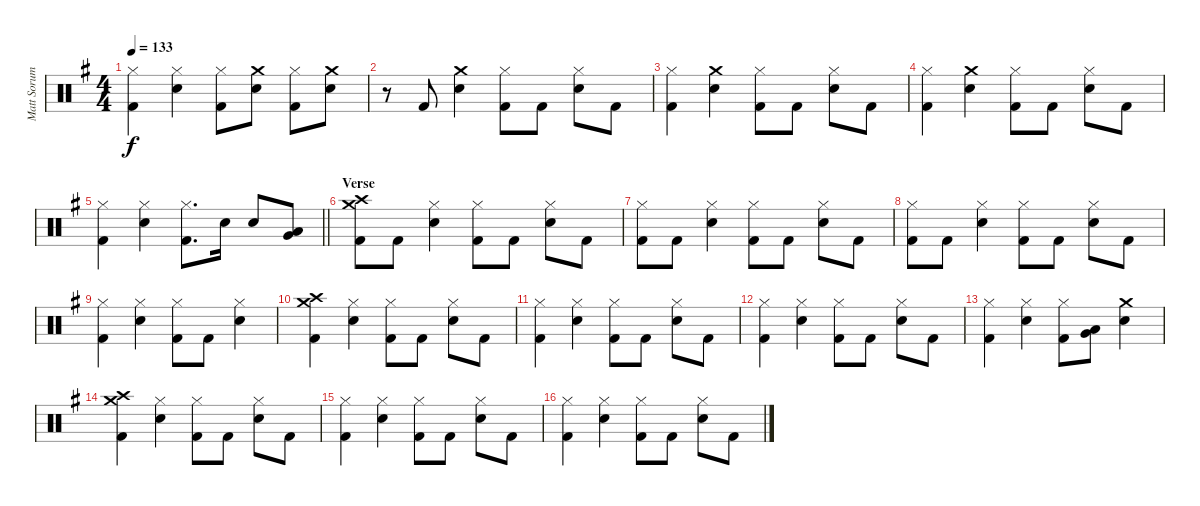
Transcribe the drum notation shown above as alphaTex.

\track ("Matt Sorum - Drums" "Matt Sorum") {instrument percussion}
\staff {score}
\articulation defaults
\ts (4 4)
\tempo 133
\clef neutral
\ks g
("Hi-Hat (closed)" "Kick (hit) 2").4{dy f} ("Hi-Hat (closed)" "Snare (hit) 2").4 ("Hi-Hat (closed)" "Kick (hit) 2").8 ("Crash medium (hit)" "Snare (hit) 2").8 ("Hi-Hat (closed)" "Kick (hit) 2").8 ("Crash medium (hit)" "Snare (hit) 2").8 |
r.8 "Kick (hit) 2".8 ("Crash medium (hit)" "Snare (hit) 2").4 ("Hi-Hat (closed)" "Kick (hit) 2").8 "Kick (hit) 2".8 ("Hi-Hat (closed)" "Snare (hit) 2").8 "Kick (hit) 2".8 |
("Hi-Hat (closed)" "Kick (hit) 2").4 ("Crash medium (hit)" "Snare (hit) 2").4 ("Hi-Hat (closed)" "Kick (hit) 2").8 "Kick (hit) 2".8 ("Hi-Hat (closed)" "Snare (hit) 2").8 "Kick (hit) 2".8 |
("Hi-Hat (closed)" "Kick (hit) 2").4 ("Crash medium (hit)" "Snare (hit) 2").4 ("Hi-Hat (closed)" "Kick (hit) 2").8 "Kick (hit) 2".8 ("Hi-Hat (closed)" "Snare (hit) 2").8 "Kick (hit) 2".8 |
\barLineRight lightlight
("Hi-Hat (closed)" "Kick (hit) 2").4 ("Hi-Hat (closed)" "Snare (hit) 2").4 ("Hi-Hat (closed)" "Kick (hit) 2").8{d} "Snare (hit) 2".16 "Snare (hit) 2".8 ("Low Tom (hit)" "Very Low Tom (hit)").8 |
\section ("" "Verse")
("Crash medium (hit)" "Crash high (hit)" "Kick (hit) 2").8 "Kick (hit) 2".8 ("Hi-Hat (closed)" "Snare (hit) 2").4 ("Hi-Hat (closed)" "Kick (hit) 2").8 "Kick (hit) 2".8 ("Hi-Hat (closed)" "Snare (hit) 2").8 "Kick (hit) 2".8 |
("Hi-Hat (closed)" "Kick (hit) 2").8 "Kick (hit) 2".8 ("Hi-Hat (closed)" "Snare (hit) 2").4 ("Hi-Hat (closed)" "Kick (hit) 2").8 "Kick (hit) 2".8 ("Hi-Hat (closed)" "Snare (hit) 2").8 "Kick (hit) 2".8 |
("Hi-Hat (closed)" "Kick (hit) 2").8 "Kick (hit) 2".8 ("Hi-Hat (closed)" "Snare (hit) 2").4 ("Hi-Hat (closed)" "Kick (hit) 2").8 "Kick (hit) 2".8 ("Hi-Hat (closed)" "Snare (hit) 2").8 "Kick (hit) 2".8 |
("Hi-Hat (closed)" "Kick (hit) 2").4 ("Hi-Hat (closed)" "Snare (hit) 2").4 ("Hi-Hat (closed)" "Kick (hit) 2").8 "Kick (hit) 2".8 ("Hi-Hat (closed)" "Snare (hit) 2").4 |
("Crash medium (hit)" "Crash high (hit)" "Kick (hit) 2").4 ("Hi-Hat (closed)" "Snare (hit) 2").4 ("Hi-Hat (closed)" "Kick (hit) 2").8 "Kick (hit) 2".8 ("Hi-Hat (closed)" "Snare (hit) 2").8 "Kick (hit) 2".8 |
("Hi-Hat (closed)" "Kick (hit) 2").4 ("Hi-Hat (closed)" "Snare (hit) 2").4 ("Hi-Hat (closed)" "Kick (hit) 2").8 "Kick (hit) 2".8 ("Hi-Hat (closed)" "Snare (hit) 2").8 "Kick (hit) 2".8 |
("Hi-Hat (closed)" "Kick (hit) 2").4 ("Hi-Hat (closed)" "Snare (hit) 2").4 ("Hi-Hat (closed)" "Kick (hit) 2").8 "Kick (hit) 2".8 ("Hi-Hat (closed)" "Snare (hit) 2").8 "Kick (hit) 2".8 |
("Hi-Hat (closed)" "Kick (hit) 2").4 ("Hi-Hat (closed)" "Snare (hit) 2").4 ("Hi-Hat (closed)" "Kick (hit) 2").8 ("Low Tom (hit)" "Very Low Tom (hit)").8 ("Crash medium (hit)" "Snare (hit) 2").4 |
("Crash medium (hit)" "Crash high (hit)" "Kick (hit) 2").4 ("Hi-Hat (closed)" "Snare (hit) 2").4 ("Hi-Hat (closed)" "Kick (hit) 2").8 "Kick (hit) 2".8 ("Hi-Hat (closed)" "Snare (hit) 2").8 "Kick (hit) 2".8 |
("Hi-Hat (closed)" "Kick (hit) 2").4 ("Hi-Hat (closed)" "Snare (hit) 2").4 ("Hi-Hat (closed)" "Kick (hit) 2").8 "Kick (hit) 2".8 ("Hi-Hat (closed)" "Snare (hit) 2").8 "Kick (hit) 2".8 |
("Hi-Hat (closed)" "Kick (hit) 2").4 ("Hi-Hat (closed)" "Snare (hit) 2").4 ("Hi-Hat (closed)" "Kick (hit) 2").8 "Kick (hit) 2".8 ("Hi-Hat (closed)" "Snare (hit) 2").8 "Kick (hit) 2".8
